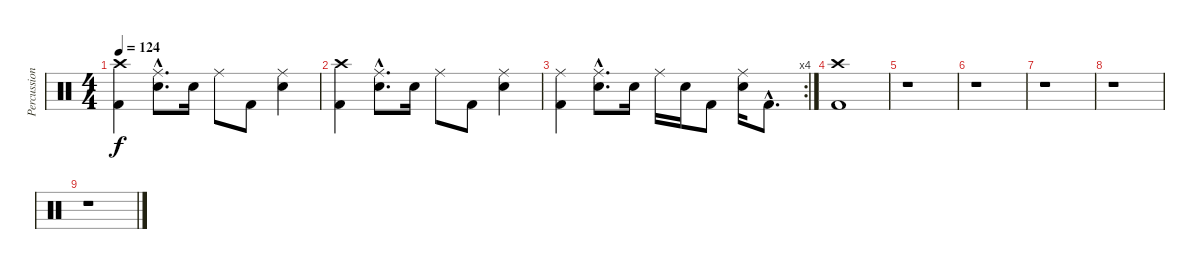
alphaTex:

\track ("Percussion" "Percussion") {instrument percussion}
\staff {score}
\articulation defaults
\ts (4 4)
\tempo 124
\clef neutral
\ks c
("Crash high (hit)" "Kick (hit) 2").4{dy f} ("Ride (middle)"{hac} "Electric Snare (hit)"{hac}).8{d} "Electric Snare (hit)".16 "Ride (middle)".8 "Kick (hit) 2".8 ("Ride (middle)" "Electric Snare (hit)").4 |
("Crash high (hit)" "Kick (hit) 2").4 ("Ride (middle)"{hac} "Electric Snare (hit)"{hac}).8{d} "Electric Snare (hit)".16 "Ride (middle)".8 "Kick (hit) 2".8 ("Ride (middle)" "Electric Snare (hit)").4 |
\rc 4
("Ride (middle)" "Kick (hit) 2").4 ("Ride (middle)"{hac} "Electric Snare (hit)"{hac}).8{d} "Electric Snare (hit)".16 "Ride (middle)".16 "Electric Snare (hit)".16 "Kick (hit) 2".8 ("Ride (middle)" "Electric Snare (hit)").16 "Kick (hit) 2"{hac}.8{d} |
("Crash high (hit)" "Kick (hit) 2").1 |
r.1 |
r.1 |
r.1 |
r.1 |
r.1
